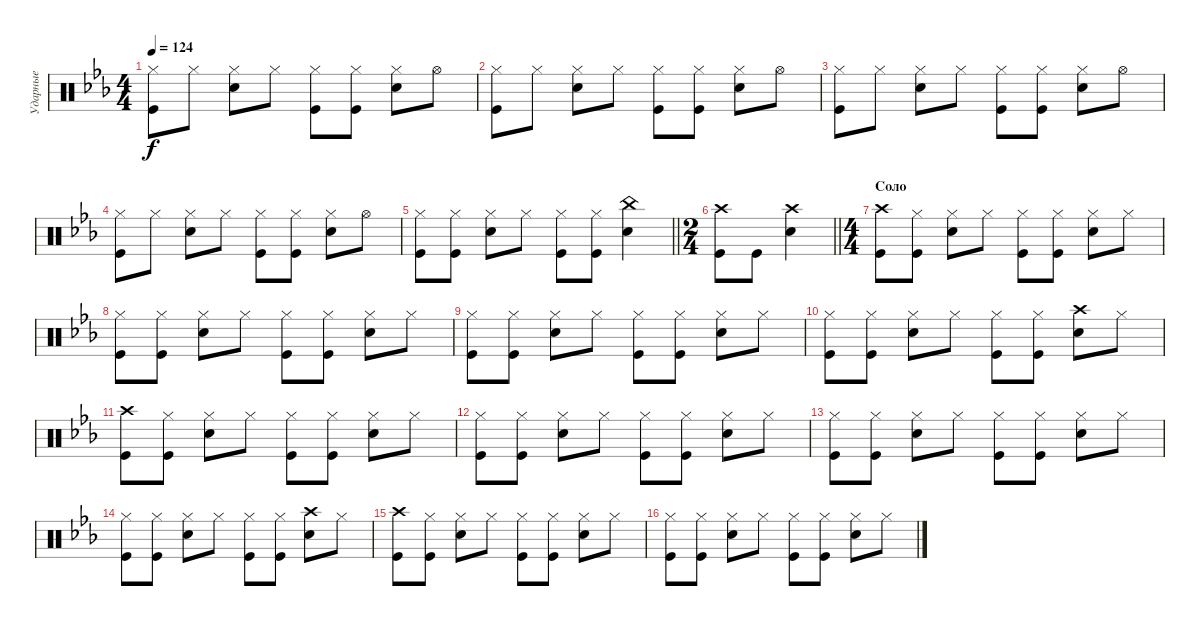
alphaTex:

\track ("Ударные" "Ударные") {instrument percussion}
\staff {score}
\articulation defaults
\ts (4 4)
\tempo 124
\clef neutral
\ks cminor
("Hi-Hat (closed)" "Kick (hit)").8{dy f} "Hi-Hat (closed)".8 ("Snare (hit) 2" "Hi-Hat (closed)").8 "Hi-Hat (closed)".8 ("Hi-Hat (closed)" "Kick (hit)").8 ("Hi-Hat (closed)" "Kick (hit)").8 ("Hi-Hat (closed)" "Snare (hit) 2").8 "Hi-Hat (open)".8 |
("Hi-Hat (closed)" "Kick (hit)").8 "Hi-Hat (closed)".8 ("Snare (hit) 2" "Hi-Hat (closed)").8 "Hi-Hat (closed)".8 ("Hi-Hat (closed)" "Kick (hit)").8 ("Hi-Hat (closed)" "Kick (hit)").8 ("Hi-Hat (closed)" "Snare (hit) 2").8 "Hi-Hat (open)".8 |
("Hi-Hat (closed)" "Kick (hit)").8 "Hi-Hat (closed)".8 ("Snare (hit) 2" "Hi-Hat (closed)").8 "Hi-Hat (closed)".8 ("Hi-Hat (closed)" "Kick (hit)").8 ("Hi-Hat (closed)" "Kick (hit)").8 ("Hi-Hat (closed)" "Snare (hit) 2").8 "Hi-Hat (open)".8 |
("Hi-Hat (closed)" "Kick (hit)").8 "Hi-Hat (closed)".8 ("Snare (hit) 2" "Hi-Hat (closed)").8 "Hi-Hat (closed)".8 ("Hi-Hat (closed)" "Kick (hit)").8 ("Hi-Hat (closed)" "Kick (hit)").8 ("Hi-Hat (closed)" "Snare (hit) 2").8 "Hi-Hat (open)".8 |
\barLineRight lightlight
("Hi-Hat (closed)" "Kick (hit)").8 ("Kick (hit)" "Hi-Hat (closed)").8 ("Hi-Hat (closed)" "Snare (hit) 2").8 "Hi-Hat (closed)".8 ("Kick (hit)" "Hi-Hat (closed)").8 ("Hi-Hat (closed)" "Kick (hit)").8 ("China (hit)" "Snare (hit) 2").4 |
\ts (2 4)
\barLineRight lightlight
("Kick (hit)" "Crash high (hit)").8 "Kick (hit)".8 ("Crash high (hit)" "Snare (hit) 2").4 |
\ts (4 4)
\section ("" "Соло")
("Crash high (hit)" "Kick (hit)").8 ("Kick (hit)" "Hi-Hat (closed)").8 ("Hi-Hat (closed)" "Snare (hit) 2").8 "Hi-Hat (closed)".8 ("Hi-Hat (closed)" "Kick (hit)").8 ("Kick (hit)" "Hi-Hat (closed)").8 ("Hi-Hat (closed)" "Snare (hit) 2").8 "Hi-Hat (closed)".8 |
("Hi-Hat (closed)" "Kick (hit)").8 ("Hi-Hat (closed)" "Kick (hit)").8 ("Hi-Hat (closed)" "Snare (hit) 2").8 "Hi-Hat (closed)".8 ("Hi-Hat (closed)" "Kick (hit)").8 ("Kick (hit)" "Hi-Hat (closed)").8 ("Hi-Hat (closed)" "Snare (hit) 2").8 "Hi-Hat (closed)".8 |
("Hi-Hat (closed)" "Kick (hit)").8 ("Hi-Hat (closed)" "Kick (hit)").8 ("Hi-Hat (closed)" "Snare (hit) 2").8 "Hi-Hat (closed)".8 ("Hi-Hat (closed)" "Kick (hit)").8 ("Kick (hit)" "Hi-Hat (closed)").8 ("Hi-Hat (closed)" "Snare (hit) 2").8 "Hi-Hat (closed)".8 |
("Hi-Hat (closed)" "Kick (hit)").8 ("Hi-Hat (closed)" "Kick (hit)").8 ("Hi-Hat (closed)" "Snare (hit) 2").8 "Hi-Hat (closed)".8 ("Hi-Hat (closed)" "Kick (hit)").8 ("Kick (hit)" "Hi-Hat (closed)").8 ("Snare (hit) 2" "Crash high (hit)").8 "Hi-Hat (closed)".8 |
("Crash high (hit)" "Kick (hit)").8 ("Kick (hit)" "Hi-Hat (closed)").8 ("Hi-Hat (closed)" "Snare (hit) 2").8 "Hi-Hat (closed)".8 ("Hi-Hat (closed)" "Kick (hit)").8 ("Kick (hit)" "Hi-Hat (closed)").8 ("Hi-Hat (closed)" "Snare (hit) 2").8 "Hi-Hat (closed)".8 |
("Hi-Hat (closed)" "Kick (hit)").8 ("Hi-Hat (closed)" "Kick (hit)").8 ("Hi-Hat (closed)" "Snare (hit) 2").8 "Hi-Hat (closed)".8 ("Hi-Hat (closed)" "Kick (hit)").8 ("Kick (hit)" "Hi-Hat (closed)").8 ("Hi-Hat (closed)" "Snare (hit) 2").8 "Hi-Hat (closed)".8 |
("Hi-Hat (closed)" "Kick (hit)").8 ("Hi-Hat (closed)" "Kick (hit)").8 ("Hi-Hat (closed)" "Snare (hit) 2").8 "Hi-Hat (closed)".8 ("Hi-Hat (closed)" "Kick (hit)").8 ("Kick (hit)" "Hi-Hat (closed)").8 ("Hi-Hat (closed)" "Snare (hit) 2").8 "Hi-Hat (closed)".8 |
("Hi-Hat (closed)" "Kick (hit)").8 ("Hi-Hat (closed)" "Kick (hit)").8 ("Hi-Hat (closed)" "Snare (hit) 2").8 "Hi-Hat (closed)".8 ("Hi-Hat (closed)" "Kick (hit)").8 ("Kick (hit)" "Hi-Hat (closed)").8 ("Snare (hit) 2" "Crash high (hit)").8 "Hi-Hat (closed)".8 |
("Crash high (hit)" "Kick (hit)").8 ("Kick (hit)" "Hi-Hat (closed)").8 ("Hi-Hat (closed)" "Snare (hit) 2").8 "Hi-Hat (closed)".8 ("Hi-Hat (closed)" "Kick (hit)").8 ("Kick (hit)" "Hi-Hat (closed)").8 ("Hi-Hat (closed)" "Snare (hit) 2").8 "Hi-Hat (closed)".8 |
("Hi-Hat (closed)" "Kick (hit)").8 ("Hi-Hat (closed)" "Kick (hit)").8 ("Hi-Hat (closed)" "Snare (hit) 2").8 "Hi-Hat (closed)".8 ("Hi-Hat (closed)" "Kick (hit)").8 ("Kick (hit)" "Hi-Hat (closed)").8 ("Hi-Hat (closed)" "Snare (hit) 2").8 "Hi-Hat (closed)".8
